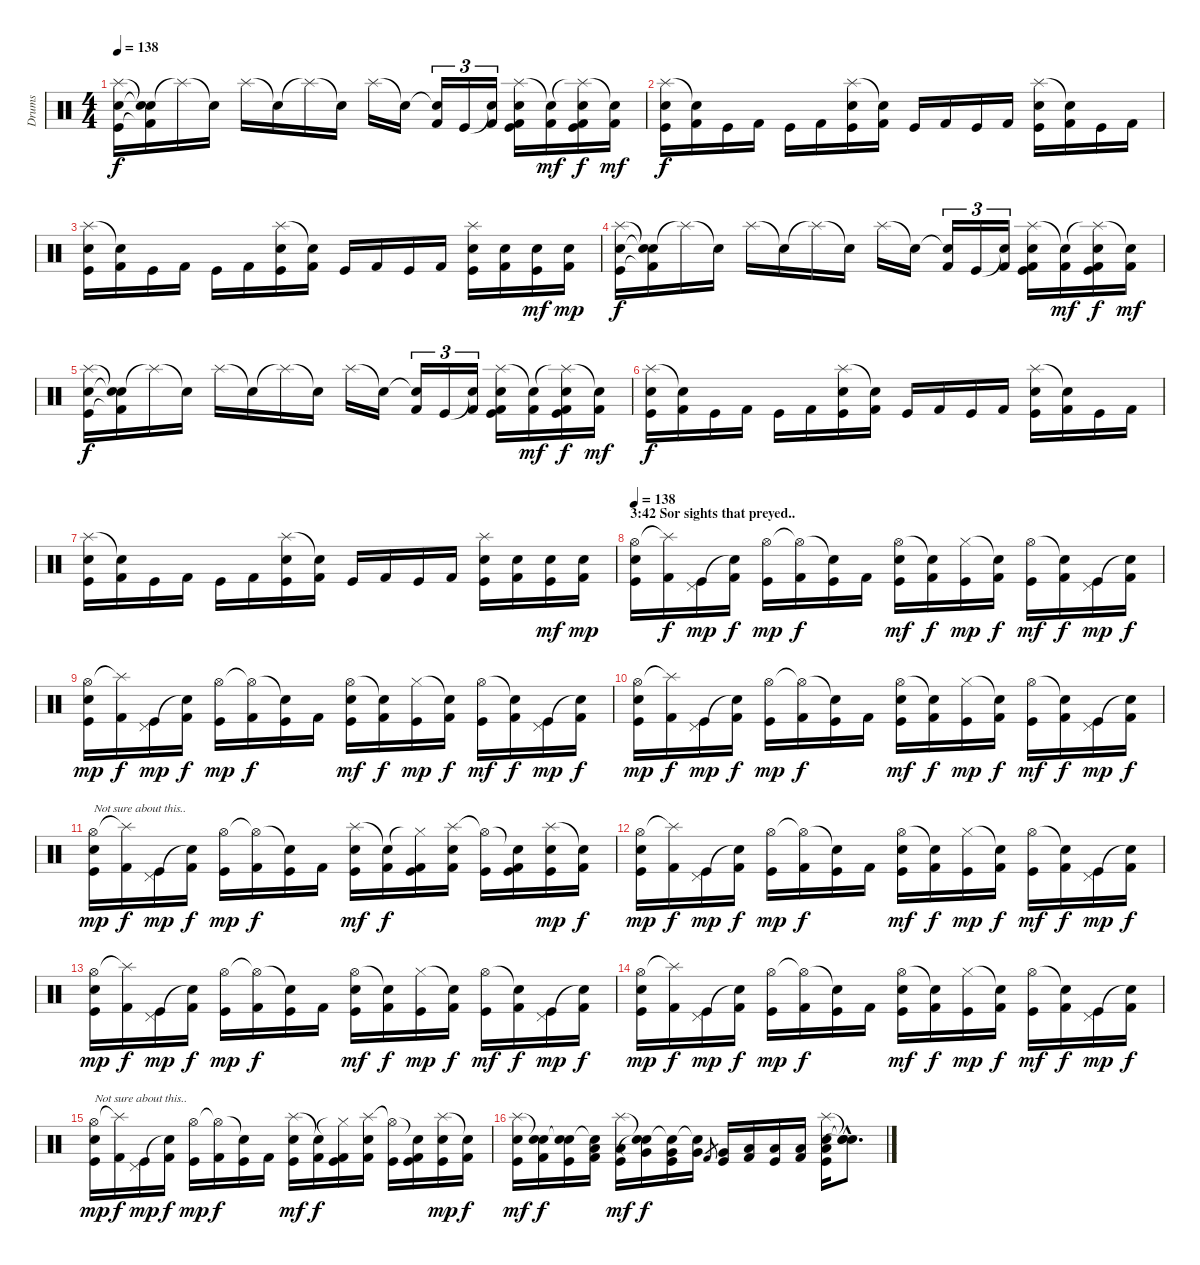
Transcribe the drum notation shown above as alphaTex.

\track ("Drums" "Drums") {instrument percussion}
\staff {score}
\articulation defaults
\ts (4 4)
\tempo 138
\clef neutral
\ks c
("Splash (hit)" "Snare (hit) 2" "Kick (hit)").16{dy f} ("Snare (hit)"{t} "Snare (hit)"{t} "Kick (hit) 2"{t}).16 "Splash (hit)"{t}.16 "Snare (hit)"{t}.16 "Splash (hit)".16 "Snare (hit)"{t}.16 "Splash (hit)"{t}.16 "Snare (hit)"{t}.16 "Splash (hit)".16 "Snare (hit)"{t}.16 ("Snare (hit)"{t} "Kick (hit) 2").16{tu (3 2)} "Kick (hit)".16{tu (3 2)} ("Snare (hit)"{t} "Kick (hit) 2").16{tu (3 2)} ("Splash (hit)" "Snare (hit) 2" "Kick (hit) 2" "Kick (hit)").16 ("Snare (hit)"{t} "Kick (hit) 2").16{dy mf} ("Splash (hit)"{t} "Snare (hit) 2" "Kick (hit) 2" "Kick (hit)").16{dy f} ("Snare (hit)"{t} "Kick (hit) 2").16{dy mf} |
("Splash (hit)" "Snare (hit) 2" "Kick (hit)").16{dy f} ("Snare (hit)"{t} "Kick (hit) 2").16 "Kick (hit)".16 "Kick (hit) 2".16 "Kick (hit)".16 "Kick (hit) 2".16 ("Splash (hit)" "Snare (hit) 2" "Kick (hit)").16 ("Snare (hit)"{t} "Kick (hit) 2").16 "Kick (hit)".16 "Kick (hit) 2".16 "Kick (hit)".16 "Kick (hit) 2".16 ("Splash (hit)" "Snare (hit) 2" "Kick (hit)").16 ("Snare (hit)"{t} "Kick (hit) 2").16 "Kick (hit)".16 "Kick (hit) 2".16 |
("Splash (hit)" "Snare (hit) 2" "Kick (hit)").16 ("Snare (hit)"{t} "Kick (hit) 2").16 "Kick (hit)".16 "Kick (hit) 2".16 "Kick (hit)".16 "Kick (hit) 2".16 ("Splash (hit)" "Snare (hit) 2" "Kick (hit)").16 ("Snare (hit)"{t} "Kick (hit) 2").16 "Kick (hit)".16 "Kick (hit) 2".16 "Kick (hit)".16 "Kick (hit) 2".16 ("Splash (hit)" "Snare (hit) 2" "Kick (hit)").16 ("Snare (hit) 2" "Kick (hit) 2").16 ("Snare (hit) 2" "Kick (hit)").16{dy mf} ("Snare (hit) 2" "Kick (hit) 2").16{dy mp} |
("Splash (hit)" "Snare (hit) 2" "Kick (hit)").16{dy f} ("Snare (hit)"{t} "Snare (hit)"{t} "Kick (hit) 2"{t}).16 "Splash (hit)"{t}.16 "Snare (hit)"{t}.16 "Splash (hit)".16 "Snare (hit)"{t}.16 "Splash (hit)"{t}.16 "Snare (hit)"{t}.16 "Splash (hit)".16 "Snare (hit)"{t}.16 ("Snare (hit)"{t} "Kick (hit) 2").16{tu (3 2)} "Kick (hit)".16{tu (3 2)} ("Snare (hit)"{t} "Kick (hit) 2").16{tu (3 2)} ("Splash (hit)" "Snare (hit) 2" "Kick (hit) 2" "Kick (hit)").16 ("Snare (hit)"{t} "Kick (hit) 2").16{dy mf} ("Splash (hit)"{t} "Snare (hit) 2" "Kick (hit) 2" "Kick (hit)").16{dy f} ("Snare (hit)"{t} "Kick (hit) 2").16{dy mf} |
("Splash (hit)" "Snare (hit) 2" "Kick (hit)").16{dy f} ("Snare (hit)"{t} "Snare (hit)"{t} "Kick (hit) 2"{t}).16 "Splash (hit)"{t}.16 "Snare (hit)"{t}.16 "Splash (hit)".16 "Snare (hit)"{t}.16 "Splash (hit)"{t}.16 "Snare (hit)"{t}.16 "Splash (hit)".16 "Snare (hit)"{t}.16 ("Snare (hit)"{t} "Kick (hit) 2").16{tu (3 2)} "Kick (hit)".16{tu (3 2)} ("Snare (hit)"{t} "Kick (hit) 2").16{tu (3 2)} ("Splash (hit)" "Snare (hit) 2" "Kick (hit) 2" "Kick (hit)").16 ("Snare (hit)"{t} "Kick (hit) 2").16{dy mf} ("Splash (hit)"{t} "Snare (hit) 2" "Kick (hit) 2" "Kick (hit)").16{dy f} ("Snare (hit)"{t} "Kick (hit) 2").16{dy mf} |
("Splash (hit)" "Snare (hit) 2" "Kick (hit)").16{dy f} ("Snare (hit)"{t} "Kick (hit) 2").16 "Kick (hit)".16 "Kick (hit) 2".16 "Kick (hit)".16 "Kick (hit) 2".16 ("Splash (hit)" "Snare (hit) 2" "Kick (hit)").16 ("Snare (hit)"{t} "Kick (hit) 2").16 "Kick (hit)".16 "Kick (hit) 2".16 "Kick (hit)".16 "Kick (hit) 2".16 ("Splash (hit)" "Snare (hit) 2" "Kick (hit)").16 ("Snare (hit)"{t} "Kick (hit) 2").16 "Kick (hit)".16 "Kick (hit) 2".16 |
("Splash (hit)" "Snare (hit) 2" "Kick (hit)").16 ("Snare (hit)"{t} "Kick (hit) 2").16 "Kick (hit)".16 "Kick (hit) 2".16 "Kick (hit)".16 "Kick (hit) 2".16 ("Splash (hit)" "Snare (hit) 2" "Kick (hit)").16 ("Snare (hit)"{t} "Kick (hit) 2").16 "Kick (hit)".16 "Kick (hit) 2".16 "Kick (hit)".16 "Kick (hit) 2".16 ("Splash (hit)" "Snare (hit) 2" "Kick (hit)").16 ("Snare (hit) 2" "Kick (hit) 2").16 ("Snare (hit) 2" "Kick (hit)").16{dy mf} ("Snare (hit) 2" "Kick (hit) 2").16{dy mp} |
\section ("" "3:42 Sor sights that preyed..")
\tempo 138
("Hi-Hat (open)" "Snare (hit) 2" "Kick (hit)").16 ("Splash (hit)"{t} "Kick (hit) 2").16{dy f} ("Pedal Hi-Hat (hit)" "Kick (hit)").16{dy mp} ("Snare (hit)"{t} "Kick (hit) 2").16{dy f} ("Hi-Hat (open)" "Kick (hit)").16{dy mp} ("Hi-Hat (open)"{t} "Kick (hit) 2").16{dy f} ("Snare (hit)"{t} "Kick (hit)").16 "Kick (hit) 2".16 ("Hi-Hat (open)" "Snare (hit) 2" "Kick (hit)").16{dy mf} ("Snare (hit)"{t} "Kick (hit) 2").16{dy f} ("Hi-Hat (closed)" "Kick (hit)").16{dy mp} ("Snare (hit)"{t} "Kick (hit) 2").16{dy f} ("Hi-Hat (open)" "Kick (hit)").16{dy mf} ("Snare (hit)"{t} "Kick (hit) 2").16{dy f} ("Pedal Hi-Hat (hit)" "Kick (hit)").16{dy mp} ("Snare (hit)"{t} "Kick (hit) 2").16{dy f} |
("Hi-Hat (open)" "Snare (hit) 2" "Kick (hit)").16{dy mp} ("Splash (hit)"{t} "Kick (hit) 2").16{dy f} ("Pedal Hi-Hat (hit)" "Kick (hit)").16{dy mp} ("Snare (hit)"{t} "Kick (hit) 2").16{dy f} ("Hi-Hat (open)" "Kick (hit)").16{dy mp} ("Hi-Hat (open)"{t} "Kick (hit) 2").16{dy f} ("Snare (hit)"{t} "Kick (hit)").16 "Kick (hit) 2".16 ("Hi-Hat (open)" "Snare (hit) 2" "Kick (hit)").16{dy mf} ("Snare (hit)"{t} "Kick (hit) 2").16{dy f} ("Hi-Hat (closed)" "Kick (hit)").16{dy mp} ("Snare (hit)"{t} "Kick (hit) 2").16{dy f} ("Hi-Hat (open)" "Kick (hit)").16{dy mf} ("Snare (hit)"{t} "Kick (hit) 2").16{dy f} ("Pedal Hi-Hat (hit)" "Kick (hit)").16{dy mp} ("Snare (hit)"{t} "Kick (hit) 2").16{dy f} |
("Hi-Hat (open)" "Snare (hit) 2" "Kick (hit)").16{dy mp} ("Splash (hit)"{t} "Kick (hit) 2").16{dy f} ("Pedal Hi-Hat (hit)" "Kick (hit)").16{dy mp} ("Snare (hit)"{t} "Kick (hit) 2").16{dy f} ("Hi-Hat (open)" "Kick (hit)").16{dy mp} ("Hi-Hat (open)"{t} "Kick (hit) 2").16{dy f} ("Snare (hit)"{t} "Kick (hit)").16 "Kick (hit) 2".16 ("Hi-Hat (open)" "Snare (hit) 2" "Kick (hit)").16{dy mf} ("Snare (hit)"{t} "Kick (hit) 2").16{dy f} ("Hi-Hat (closed)" "Kick (hit)").16{dy mp} ("Snare (hit)"{t} "Kick (hit) 2").16{dy f} ("Hi-Hat (open)" "Kick (hit)").16{dy mf} ("Snare (hit)"{t} "Kick (hit) 2").16{dy f} ("Pedal Hi-Hat (hit)" "Kick (hit)").16{dy mp} ("Snare (hit)"{t} "Kick (hit) 2").16{dy f} |
("Hi-Hat (open)" "Snare (hit) 2" "Kick (hit)").16{txt "Not sure about this.." dy mp} ("Splash (hit)"{t} "Kick (hit) 2").16{dy f} ("Pedal Hi-Hat (hit)" "Kick (hit)").16{dy mp} ("Snare (hit)"{t} "Kick (hit) 2").16{dy f} ("Hi-Hat (open)" "Kick (hit)").16{dy mp} ("Hi-Hat (open)"{t} "Kick (hit) 2").16{dy f} ("Snare (hit)"{t} "Kick (hit)").16 "Kick (hit) 2".16 ("Splash (hit)" "Snare (hit) 2" "Kick (hit)").16{dy mf} ("Snare (hit)"{t} "Kick (hit) 2").16{dy f} ("Hi-Hat (closed)"{t} "Kick (hit) 2" "Kick (hit)").16 ("Splash (hit)" "Snare (hit) 2" "Kick (hit) 2").16 ("Hi-Hat (open)"{t} "Kick (hit)").16 ("Snare (hit)"{t} "Kick (hit)" "Kick (hit) 2").16 ("Splash (hit)" "Snare (hit) 2" "Kick (hit)").16{dy mp} ("Snare (hit)"{t} "Kick (hit) 2").16{dy f} |
("Hi-Hat (open)" "Snare (hit) 2" "Kick (hit)").16{dy mp} ("Splash (hit)"{t} "Kick (hit) 2").16{dy f} ("Pedal Hi-Hat (hit)" "Kick (hit)").16{dy mp} ("Snare (hit)"{t} "Kick (hit) 2").16{dy f} ("Hi-Hat (open)" "Kick (hit)").16{dy mp} ("Hi-Hat (open)"{t} "Kick (hit) 2").16{dy f} ("Snare (hit)"{t} "Kick (hit)").16 "Kick (hit) 2".16 ("Hi-Hat (open)" "Snare (hit) 2" "Kick (hit)").16{dy mf} ("Snare (hit)"{t} "Kick (hit) 2").16{dy f} ("Hi-Hat (closed)" "Kick (hit)").16{dy mp} ("Snare (hit)"{t} "Kick (hit) 2").16{dy f} ("Hi-Hat (open)" "Kick (hit)").16{dy mf} ("Snare (hit)"{t} "Kick (hit) 2").16{dy f} ("Pedal Hi-Hat (hit)" "Kick (hit)").16{dy mp} ("Snare (hit)"{t} "Kick (hit) 2").16{dy f} |
("Hi-Hat (open)" "Snare (hit) 2" "Kick (hit)").16{dy mp} ("Splash (hit)"{t} "Kick (hit) 2").16{dy f} ("Pedal Hi-Hat (hit)" "Kick (hit)").16{dy mp} ("Snare (hit)"{t} "Kick (hit) 2").16{dy f} ("Hi-Hat (open)" "Kick (hit)").16{dy mp} ("Hi-Hat (open)"{t} "Kick (hit) 2").16{dy f} ("Snare (hit)"{t} "Kick (hit)").16 "Kick (hit) 2".16 ("Hi-Hat (open)" "Snare (hit) 2" "Kick (hit)").16{dy mf} ("Snare (hit)"{t} "Kick (hit) 2").16{dy f} ("Hi-Hat (closed)" "Kick (hit)").16{dy mp} ("Snare (hit)"{t} "Kick (hit) 2").16{dy f} ("Hi-Hat (open)" "Kick (hit)").16{dy mf} ("Snare (hit)"{t} "Kick (hit) 2").16{dy f} ("Pedal Hi-Hat (hit)" "Kick (hit)").16{dy mp} ("Snare (hit)"{t} "Kick (hit) 2").16{dy f} |
("Hi-Hat (open)" "Snare (hit) 2" "Kick (hit)").16{dy mp} ("Splash (hit)"{t} "Kick (hit) 2").16{dy f} ("Pedal Hi-Hat (hit)" "Kick (hit)").16{dy mp} ("Snare (hit)"{t} "Kick (hit) 2").16{dy f} ("Hi-Hat (open)" "Kick (hit)").16{dy mp} ("Hi-Hat (open)"{t} "Kick (hit) 2").16{dy f} ("Snare (hit)"{t} "Kick (hit)").16 "Kick (hit) 2".16 ("Hi-Hat (open)" "Snare (hit) 2" "Kick (hit)").16{dy mf} ("Snare (hit)"{t} "Kick (hit) 2").16{dy f} ("Hi-Hat (closed)" "Kick (hit)").16{dy mp} ("Snare (hit)"{t} "Kick (hit) 2").16{dy f} ("Hi-Hat (open)" "Kick (hit)").16{dy mf} ("Snare (hit)"{t} "Kick (hit) 2").16{dy f} ("Pedal Hi-Hat (hit)" "Kick (hit)").16{dy mp} ("Snare (hit)"{t} "Kick (hit) 2").16{dy f} |
("Hi-Hat (open)" "Snare (hit) 2" "Kick (hit)").16{txt "Not sure about this.." dy mp} ("Splash (hit)"{t} "Kick (hit) 2").16{dy f} ("Pedal Hi-Hat (hit)" "Kick (hit)").16{dy mp} ("Snare (hit)"{t} "Kick (hit) 2").16{dy f} ("Hi-Hat (open)" "Kick (hit)").16{dy mp} ("Hi-Hat (open)"{t} "Kick (hit) 2").16{dy f} ("Snare (hit)"{t} "Kick (hit)").16 "Kick (hit) 2".16 ("Splash (hit)" "Snare (hit) 2" "Kick (hit)").16{dy mf} ("Snare (hit)"{t} "Kick (hit) 2").16{dy f} ("Hi-Hat (closed)"{t} "Kick (hit) 2" "Kick (hit)").16 ("Splash (hit)" "Snare (hit) 2" "Kick (hit) 2").16 ("Hi-Hat (open)"{t} "Kick (hit)").16 ("Snare (hit)"{t} "Kick (hit)" "Kick (hit) 2").16 ("Splash (hit)" "Snare (hit) 2" "Kick (hit)").16{dy mp} ("Snare (hit)"{t} "Kick (hit) 2").16{dy f} |
("Splash (hit)" "Snare (hit) 2" "Kick (hit)").16{dy mf} ("Snare (hit)"{t} "Snare (hit) 2" "Kick (hit) 2").16{dy f} ("Snare (hit)"{t} "Snare (hit) 2" "Kick (hit)").16 ("Snare (hit)"{t} "Low Tom (hit)" "Kick (hit) 2").16 ("Splash (hit)" "Low Tom (hit)" "Kick (hit)").16{dy mf} ("Snare (hit)"{t} "Very Low Tom (hit)" "Snare (hit)"{t}).16{dy f} ("Snare (hit)"{t} "Very Low Tom (hit)" "Kick (hit)").16 ("Snare (hit)"{t} "Very Low Tom (hit)").16 "Kick (hit) 2".8{gr} ("Very Low Tom (hit)" "Kick (hit)").16 ("Low Floor Tom (hit)" "Kick (hit) 2").16 ("Low Floor Tom (hit)" "Kick (hit)").16 ("Low Floor Tom (hit)" "Kick (hit) 2").16 ("Splash (hit)" "Snare (hit) 2" "Low Floor Tom (hit)" "Kick (hit)").16 ("Snare (hit)"{hac t} "Snare (hit)"{hac t} "Snare (hit)"{hac t}).8{d}
